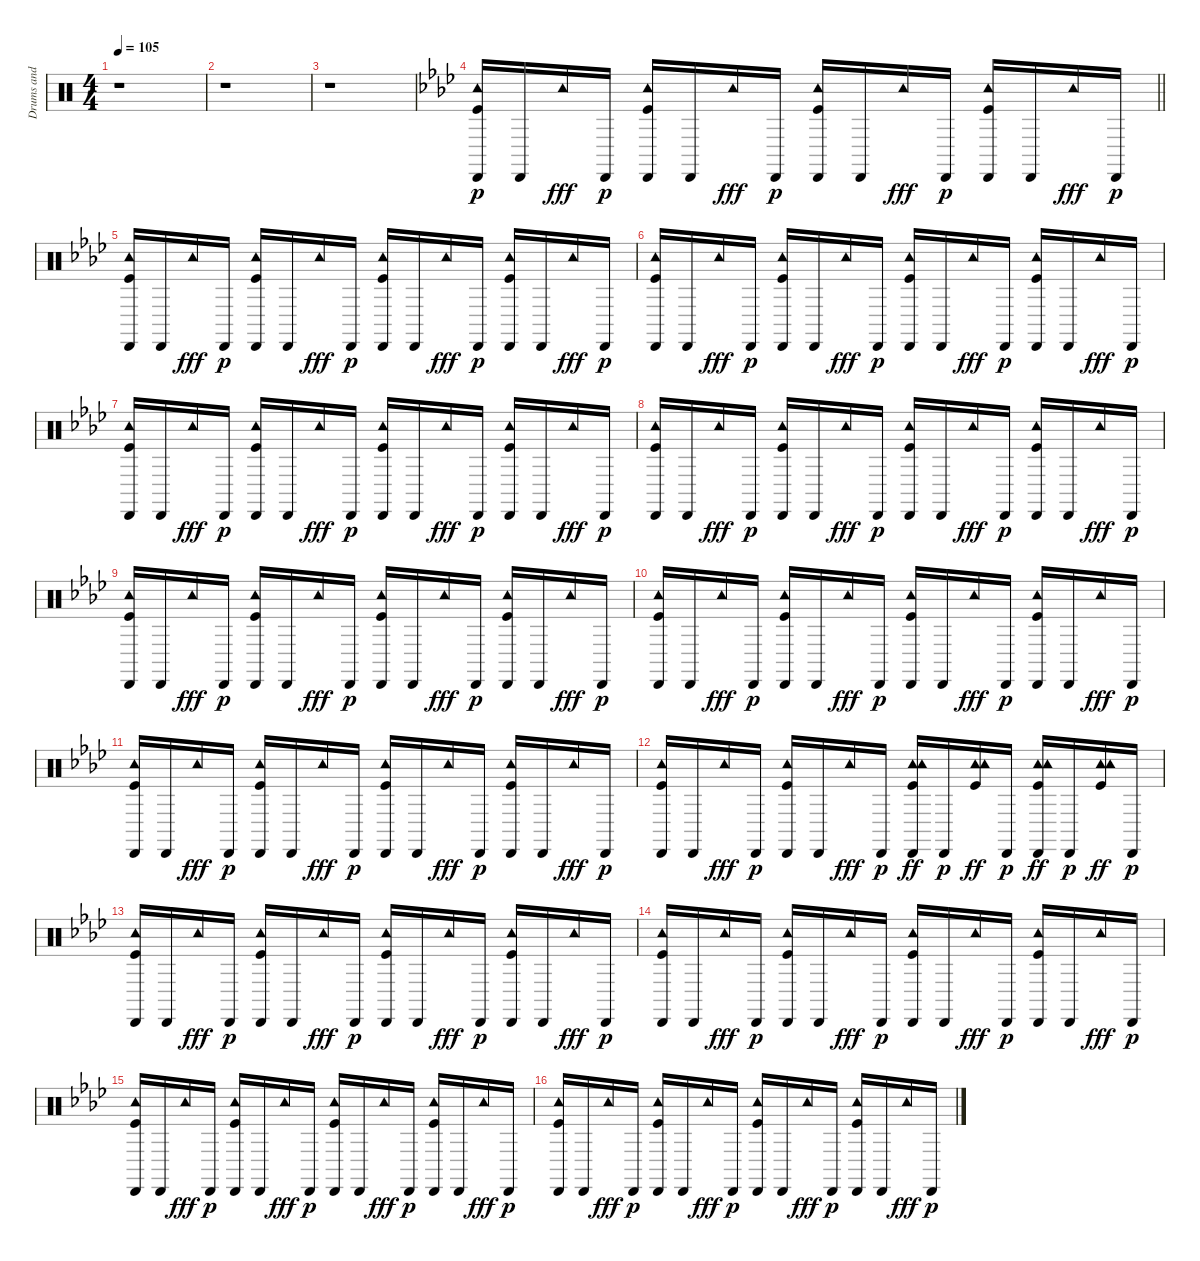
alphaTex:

\track ("Drums and percussion" "Drums and ") {instrument percussion}
\staff {score}
\articulation defaults
\ts (4 4)
\tempo 105
\clef neutral
\ks c
r.1{dy f} |
r.1 |
r.1 |
\barLineRight lightlight
\ks ab
("Cabasa (hit)" "Tambourine (hit)" "Kick (hit)").16{dy p} "Cabasa (hit)".16 "Tambourine (hit)".16{dy fff} "Cabasa (hit)".16{dy p} ("Cabasa (hit)" "Tambourine (hit)" "Kick (hit)").16 "Cabasa (hit)".16 "Tambourine (hit)".16{dy fff} "Cabasa (hit)".16{dy p} ("Cabasa (hit)" "Tambourine (hit)" "Kick (hit)").16 "Cabasa (hit)".16 "Tambourine (hit)".16{dy fff} "Cabasa (hit)".16{dy p} ("Cabasa (hit)" "Tambourine (hit)" "Kick (hit)").16 "Cabasa (hit)".16 "Tambourine (hit)".16{dy fff} "Cabasa (hit)".16{dy p} |
("Cabasa (hit)" "Tambourine (hit)" "Kick (hit)").16 "Cabasa (hit)".16 "Tambourine (hit)".16{dy fff} "Cabasa (hit)".16{dy p} ("Cabasa (hit)" "Tambourine (hit)" "Kick (hit)").16 "Cabasa (hit)".16 "Tambourine (hit)".16{dy fff} "Cabasa (hit)".16{dy p} ("Cabasa (hit)" "Tambourine (hit)" "Kick (hit)").16 "Cabasa (hit)".16 "Tambourine (hit)".16{dy fff} "Cabasa (hit)".16{dy p} ("Cabasa (hit)" "Tambourine (hit)" "Kick (hit)").16 "Cabasa (hit)".16 "Tambourine (hit)".16{dy fff} "Cabasa (hit)".16{dy p} |
("Cabasa (hit)" "Tambourine (hit)" "Kick (hit)").16 "Cabasa (hit)".16 "Tambourine (hit)".16{dy fff} "Cabasa (hit)".16{dy p} ("Cabasa (hit)" "Tambourine (hit)" "Kick (hit)").16 "Cabasa (hit)".16 "Tambourine (hit)".16{dy fff} "Cabasa (hit)".16{dy p} ("Cabasa (hit)" "Tambourine (hit)" "Kick (hit)").16 "Cabasa (hit)".16 "Tambourine (hit)".16{dy fff} "Cabasa (hit)".16{dy p} ("Cabasa (hit)" "Tambourine (hit)" "Kick (hit)").16 "Cabasa (hit)".16 "Tambourine (hit)".16{dy fff} "Cabasa (hit)".16{dy p} |
("Cabasa (hit)" "Tambourine (hit)" "Kick (hit)").16 "Cabasa (hit)".16 "Tambourine (hit)".16{dy fff} "Cabasa (hit)".16{dy p} ("Cabasa (hit)" "Tambourine (hit)" "Kick (hit)").16 "Cabasa (hit)".16 "Tambourine (hit)".16{dy fff} "Cabasa (hit)".16{dy p} ("Cabasa (hit)" "Tambourine (hit)" "Kick (hit)").16 "Cabasa (hit)".16 "Tambourine (hit)".16{dy fff} "Cabasa (hit)".16{dy p} ("Cabasa (hit)" "Tambourine (hit)" "Kick (hit)").16 "Cabasa (hit)".16 "Tambourine (hit)".16{dy fff} "Cabasa (hit)".16{dy p} |
("Cabasa (hit)" "Tambourine (hit)" "Kick (hit)").16 "Cabasa (hit)".16 "Tambourine (hit)".16{dy fff} "Cabasa (hit)".16{dy p} ("Cabasa (hit)" "Tambourine (hit)" "Kick (hit)").16 "Cabasa (hit)".16 "Tambourine (hit)".16{dy fff} "Cabasa (hit)".16{dy p} ("Cabasa (hit)" "Tambourine (hit)" "Kick (hit)").16 "Cabasa (hit)".16 "Tambourine (hit)".16{dy fff} "Cabasa (hit)".16{dy p} ("Cabasa (hit)" "Tambourine (hit)" "Kick (hit)").16 "Cabasa (hit)".16 "Tambourine (hit)".16{dy fff} "Cabasa (hit)".16{dy p} |
("Cabasa (hit)" "Tambourine (hit)" "Kick (hit)").16 "Cabasa (hit)".16 "Tambourine (hit)".16{dy fff} "Cabasa (hit)".16{dy p} ("Cabasa (hit)" "Tambourine (hit)" "Kick (hit)").16 "Cabasa (hit)".16 "Tambourine (hit)".16{dy fff} "Cabasa (hit)".16{dy p} ("Cabasa (hit)" "Tambourine (hit)" "Kick (hit)").16 "Cabasa (hit)".16 "Tambourine (hit)".16{dy fff} "Cabasa (hit)".16{dy p} ("Cabasa (hit)" "Tambourine (hit)" "Kick (hit)").16 "Cabasa (hit)".16 "Tambourine (hit)".16{dy fff} "Cabasa (hit)".16{dy p} |
("Cabasa (hit)" "Tambourine (hit)" "Kick (hit)").16 "Cabasa (hit)".16 "Tambourine (hit)".16{dy fff} "Cabasa (hit)".16{dy p} ("Cabasa (hit)" "Tambourine (hit)" "Kick (hit)").16 "Cabasa (hit)".16 "Tambourine (hit)".16{dy fff} "Cabasa (hit)".16{dy p} ("Cabasa (hit)" "Tambourine (hit)" "Kick (hit)").16 "Cabasa (hit)".16 "Tambourine (hit)".16{dy fff} "Cabasa (hit)".16{dy p} ("Cabasa (hit)" "Tambourine (hit)" "Kick (hit)").16 "Cabasa (hit)".16 "Tambourine (hit)".16{dy fff} "Cabasa (hit)".16{dy p} |
("Cabasa (hit)" "Tambourine (hit)" "Kick (hit)").16 "Cabasa (hit)".16 "Tambourine (hit)".16{dy fff} "Cabasa (hit)".16{dy p} ("Cabasa (hit)" "Tambourine (hit)" "Kick (hit)").16 "Cabasa (hit)".16 "Tambourine (hit)".16{dy fff} "Cabasa (hit)".16{dy p} ("Cabasa (hit)" "Tambourine (hit)" "Kick (hit)").16 "Cabasa (hit)".16 "Tambourine (hit)".16{dy fff} "Cabasa (hit)".16{dy p} ("Cabasa (hit)" "Tambourine (hit)" "Kick (hit)").16 "Cabasa (hit)".16 "Tambourine (hit)".16{dy fff} "Cabasa (hit)".16{dy p} |
("Cabasa (hit)" "Tambourine (hit)" "Kick (hit)").16 "Cabasa (hit)".16 "Tambourine (hit)".16{dy fff} "Cabasa (hit)".16{dy p} ("Cabasa (hit)" "Tambourine (hit)" "Kick (hit)").16 "Cabasa (hit)".16 "Tambourine (hit)".16{dy fff} "Cabasa (hit)".16{dy p} ("Cabasa (hit)" "Tambourine (hit)" "Tambourine (hit)" "Kick (hit)").16{dy ff} "Cabasa (hit)".16{dy p} ("Tambourine (hit)" "Tambourine (hit)" "Kick (hit)").16{dy ff} "Cabasa (hit)".16{dy p} ("Cabasa (hit)" "Tambourine (hit)" "Tambourine (hit)" "Kick (hit)").16{dy ff} "Cabasa (hit)".16{dy p} ("Tambourine (hit)" "Tambourine (hit)" "Kick (hit)").16{dy ff} "Cabasa (hit)".16{dy p} |
("Cabasa (hit)" "Tambourine (hit)" "Kick (hit)").16 "Cabasa (hit)".16 "Tambourine (hit)".16{dy fff} "Cabasa (hit)".16{dy p} ("Cabasa (hit)" "Tambourine (hit)" "Kick (hit)").16 "Cabasa (hit)".16 "Tambourine (hit)".16{dy fff} "Cabasa (hit)".16{dy p} ("Cabasa (hit)" "Tambourine (hit)" "Kick (hit)").16 "Cabasa (hit)".16 "Tambourine (hit)".16{dy fff} "Cabasa (hit)".16{dy p} ("Cabasa (hit)" "Tambourine (hit)" "Kick (hit)").16 "Cabasa (hit)".16 "Tambourine (hit)".16{dy fff} "Cabasa (hit)".16{dy p} |
("Cabasa (hit)" "Tambourine (hit)" "Kick (hit)").16 "Cabasa (hit)".16 "Tambourine (hit)".16{dy fff} "Cabasa (hit)".16{dy p} ("Cabasa (hit)" "Tambourine (hit)" "Kick (hit)").16 "Cabasa (hit)".16 "Tambourine (hit)".16{dy fff} "Cabasa (hit)".16{dy p} ("Cabasa (hit)" "Tambourine (hit)" "Kick (hit)").16 "Cabasa (hit)".16 "Tambourine (hit)".16{dy fff} "Cabasa (hit)".16{dy p} ("Cabasa (hit)" "Tambourine (hit)" "Kick (hit)").16 "Cabasa (hit)".16 "Tambourine (hit)".16{dy fff} "Cabasa (hit)".16{dy p} |
("Cabasa (hit)" "Tambourine (hit)" "Kick (hit)").16 "Cabasa (hit)".16 "Tambourine (hit)".16{dy fff} "Cabasa (hit)".16{dy p} ("Cabasa (hit)" "Tambourine (hit)" "Kick (hit)").16 "Cabasa (hit)".16 "Tambourine (hit)".16{dy fff} "Cabasa (hit)".16{dy p} ("Cabasa (hit)" "Tambourine (hit)" "Kick (hit)").16 "Cabasa (hit)".16 "Tambourine (hit)".16{dy fff} "Cabasa (hit)".16{dy p} ("Cabasa (hit)" "Tambourine (hit)" "Kick (hit)").16 "Cabasa (hit)".16 "Tambourine (hit)".16{dy fff} "Cabasa (hit)".16{dy p} |
("Cabasa (hit)" "Tambourine (hit)" "Kick (hit)").16 "Cabasa (hit)".16 "Tambourine (hit)".16{dy fff} "Cabasa (hit)".16{dy p} ("Cabasa (hit)" "Tambourine (hit)" "Kick (hit)").16 "Cabasa (hit)".16 "Tambourine (hit)".16{dy fff} "Cabasa (hit)".16{dy p} ("Cabasa (hit)" "Tambourine (hit)" "Kick (hit)").16 "Cabasa (hit)".16 "Tambourine (hit)".16{dy fff} "Cabasa (hit)".16{dy p} ("Cabasa (hit)" "Tambourine (hit)" "Kick (hit)").16 "Cabasa (hit)".16 "Tambourine (hit)".16{dy fff} "Cabasa (hit)".16{dy p}
